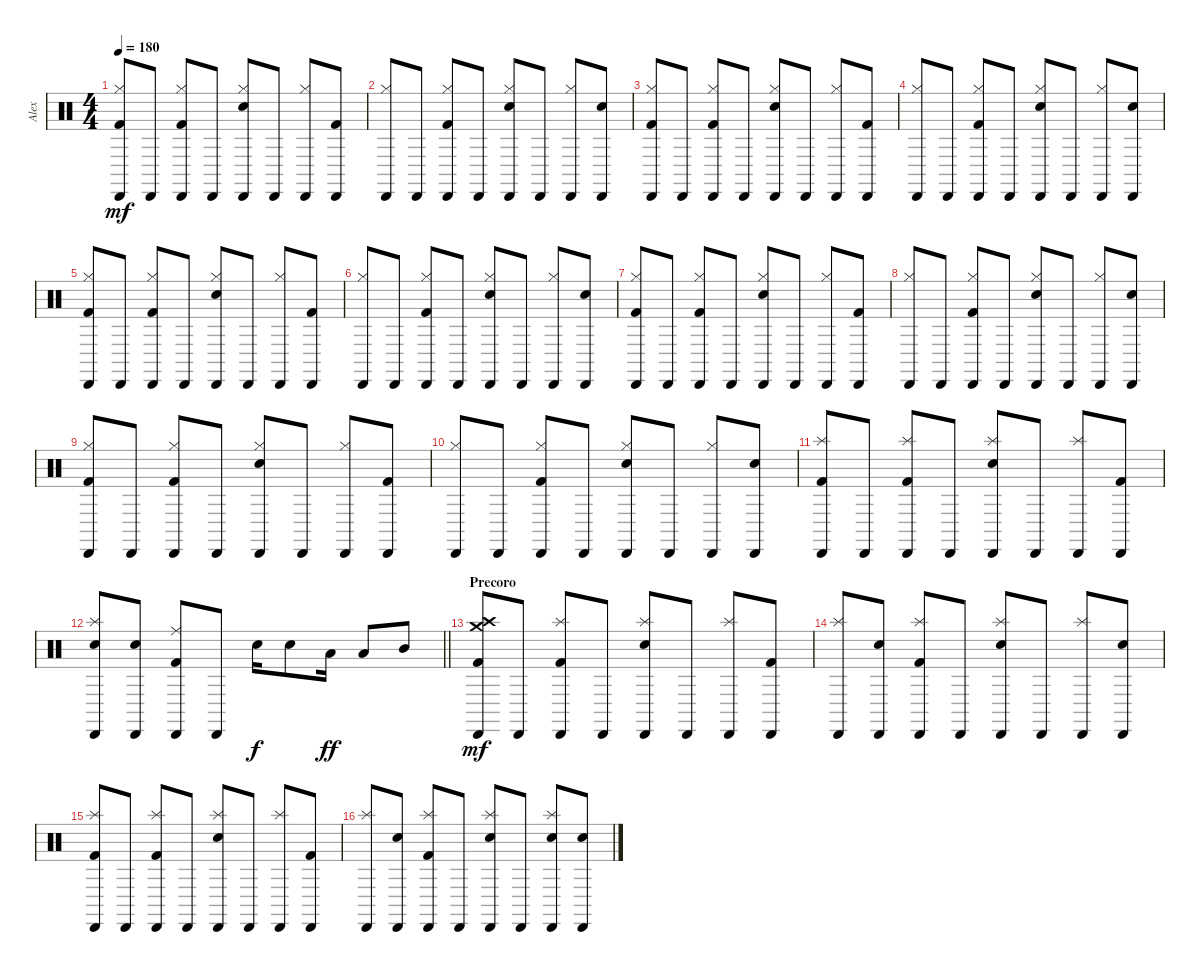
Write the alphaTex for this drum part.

\track ("Alex" "Alex") {instrument percussion}
\staff {score}
\articulation defaults
\ts (4 4)
\tempo 180
\clef neutral
\ks c
("Hi-Hat (closed)" "Kick (hit) 2" "Cabasa (hit)").8{dy mf} "Cabasa (hit)".8 ("Hi-Hat (closed)" "Kick (hit) 2" "Cabasa (hit)").8 "Cabasa (hit)".8 ("Hi-Hat (closed)" "Snare (hit) 2" "Cabasa (hit)").8 "Cabasa (hit)".8 ("Hi-Hat (closed)" "Cabasa (hit)").8 ("Kick (hit) 2" "Cabasa (hit)").8 |
("Hi-Hat (closed)" "Cabasa (hit)").8 "Cabasa (hit)".8 ("Hi-Hat (closed)" "Kick (hit) 2" "Cabasa (hit)").8 "Cabasa (hit)".8 ("Hi-Hat (closed)" "Snare (hit) 2" "Cabasa (hit)").8 "Cabasa (hit)".8 ("Hi-Hat (closed)" "Cabasa (hit)").8 ("Snare (hit) 2" "Cabasa (hit)").8 |
("Hi-Hat (closed)" "Kick (hit) 2" "Cabasa (hit)").8 "Cabasa (hit)".8 ("Hi-Hat (closed)" "Kick (hit) 2" "Cabasa (hit)").8 "Cabasa (hit)".8 ("Hi-Hat (closed)" "Snare (hit) 2" "Cabasa (hit)").8 "Cabasa (hit)".8 ("Hi-Hat (closed)" "Cabasa (hit)").8 ("Kick (hit) 2" "Cabasa (hit)").8 |
("Hi-Hat (closed)" "Cabasa (hit)").8 "Cabasa (hit)".8 ("Hi-Hat (closed)" "Kick (hit) 2" "Cabasa (hit)").8 "Cabasa (hit)".8 ("Hi-Hat (closed)" "Snare (hit) 2" "Cabasa (hit)").8 "Cabasa (hit)".8 ("Hi-Hat (closed)" "Cabasa (hit)").8 ("Snare (hit) 2" "Cabasa (hit)").8 |
("Hi-Hat (closed)" "Kick (hit) 2" "Cabasa (hit)").8 "Cabasa (hit)".8 ("Hi-Hat (closed)" "Kick (hit) 2" "Cabasa (hit)").8 "Cabasa (hit)".8 ("Hi-Hat (closed)" "Snare (hit) 2" "Cabasa (hit)").8 "Cabasa (hit)".8 ("Hi-Hat (closed)" "Cabasa (hit)").8 ("Kick (hit) 2" "Cabasa (hit)").8 |
("Hi-Hat (closed)" "Cabasa (hit)").8 "Cabasa (hit)".8 ("Hi-Hat (closed)" "Kick (hit) 2" "Cabasa (hit)").8 "Cabasa (hit)".8 ("Hi-Hat (closed)" "Snare (hit) 2" "Cabasa (hit)").8 "Cabasa (hit)".8 ("Hi-Hat (closed)" "Cabasa (hit)").8 ("Snare (hit) 2" "Cabasa (hit)").8 |
("Hi-Hat (closed)" "Kick (hit) 2" "Cabasa (hit)").8 "Cabasa (hit)".8 ("Hi-Hat (closed)" "Kick (hit) 2" "Cabasa (hit)").8 "Cabasa (hit)".8 ("Hi-Hat (closed)" "Snare (hit) 2" "Cabasa (hit)").8 "Cabasa (hit)".8 ("Hi-Hat (closed)" "Cabasa (hit)").8 ("Kick (hit) 2" "Cabasa (hit)").8 |
("Hi-Hat (closed)" "Cabasa (hit)").8 "Cabasa (hit)".8 ("Hi-Hat (closed)" "Kick (hit) 2" "Cabasa (hit)").8 "Cabasa (hit)".8 ("Hi-Hat (closed)" "Snare (hit) 2" "Cabasa (hit)").8 "Cabasa (hit)".8 ("Hi-Hat (closed)" "Cabasa (hit)").8 ("Snare (hit) 2" "Cabasa (hit)").8 |
("Hi-Hat (closed)" "Kick (hit) 2" "Cabasa (hit)").8 "Cabasa (hit)".8 ("Hi-Hat (closed)" "Kick (hit) 2" "Cabasa (hit)").8 "Cabasa (hit)".8 ("Hi-Hat (closed)" "Snare (hit) 2" "Cabasa (hit)").8 "Cabasa (hit)".8 ("Hi-Hat (closed)" "Cabasa (hit)").8 ("Kick (hit) 2" "Cabasa (hit)").8 |
("Hi-Hat (closed)" "Cabasa (hit)").8 "Cabasa (hit)".8 ("Hi-Hat (closed)" "Kick (hit) 2" "Cabasa (hit)").8 "Cabasa (hit)".8 ("Hi-Hat (closed)" "Snare (hit) 2" "Cabasa (hit)").8 "Cabasa (hit)".8 ("Hi-Hat (closed)" "Cabasa (hit)").8 ("Snare (hit) 2" "Cabasa (hit)").8 |
("Splash (hit)" "Kick (hit) 2" "Cabasa (hit)").8 "Cabasa (hit)".8 ("Splash (hit)" "Kick (hit) 2" "Cabasa (hit)").8 "Cabasa (hit)".8 ("Splash (hit)" "Snare (hit) 2" "Cabasa (hit)").8 "Cabasa (hit)".8 ("Splash (hit)" "Cabasa (hit)").8 ("Kick (hit) 2" "Cabasa (hit)").8 |
\barLineRight lightlight
("Splash (hit)" "Snare (hit) 2" "Cabasa (hit)").8 ("Snare (hit) 2" "Cabasa (hit)").8 ("Ride (middle)" "Kick (hit) 2" "Cabasa (hit)").8 "Cabasa (hit)".8 "Snare (hit) 2".16{dy f} "Snare (hit) 2".8 "Low Tom (hit)".16{dy ff} "Low Tom (hit)".8 "Mid Tom (hit)".8 |
\section ("" "Precoro")
("Crash medium (hit)" "Crash high (hit)" "Kick (hit) 2" "Cabasa (hit)").8{dy mf} "Cabasa (hit)".8 ("Splash (hit)" "Kick (hit) 2" "Cabasa (hit)").8 "Cabasa (hit)".8 ("Splash (hit)" "Snare (hit) 2" "Cabasa (hit)").8 "Cabasa (hit)".8 ("Splash (hit)" "Cabasa (hit)").8 ("Kick (hit) 2" "Cabasa (hit)").8 |
("Splash (hit)" "Cabasa (hit)").8 ("Snare (hit) 2" "Cabasa (hit)").8 ("Splash (hit)" "Kick (hit) 2" "Cabasa (hit)").8 "Cabasa (hit)".8 ("Splash (hit)" "Snare (hit) 2" "Cabasa (hit)").8 "Cabasa (hit)".8 ("Splash (hit)" "Cabasa (hit)").8 ("Snare (hit) 2" "Cabasa (hit)").8 |
("Splash (hit)" "Kick (hit) 2" "Cabasa (hit)").8 "Cabasa (hit)".8 ("Splash (hit)" "Kick (hit) 2" "Cabasa (hit)").8 "Cabasa (hit)".8 ("Splash (hit)" "Snare (hit) 2" "Cabasa (hit)").8 "Cabasa (hit)".8 ("Splash (hit)" "Cabasa (hit)").8 ("Kick (hit) 2" "Cabasa (hit)").8 |
("Splash (hit)" "Cabasa (hit)").8 ("Snare (hit) 2" "Cabasa (hit)").8 ("Splash (hit)" "Kick (hit) 2" "Cabasa (hit)").8 "Cabasa (hit)".8 ("Splash (hit)" "Snare (hit) 2" "Cabasa (hit)").8 "Cabasa (hit)".8 ("Splash (hit)" "Snare (hit) 2" "Cabasa (hit)").8 ("Snare (hit) 2" "Cabasa (hit)").8
